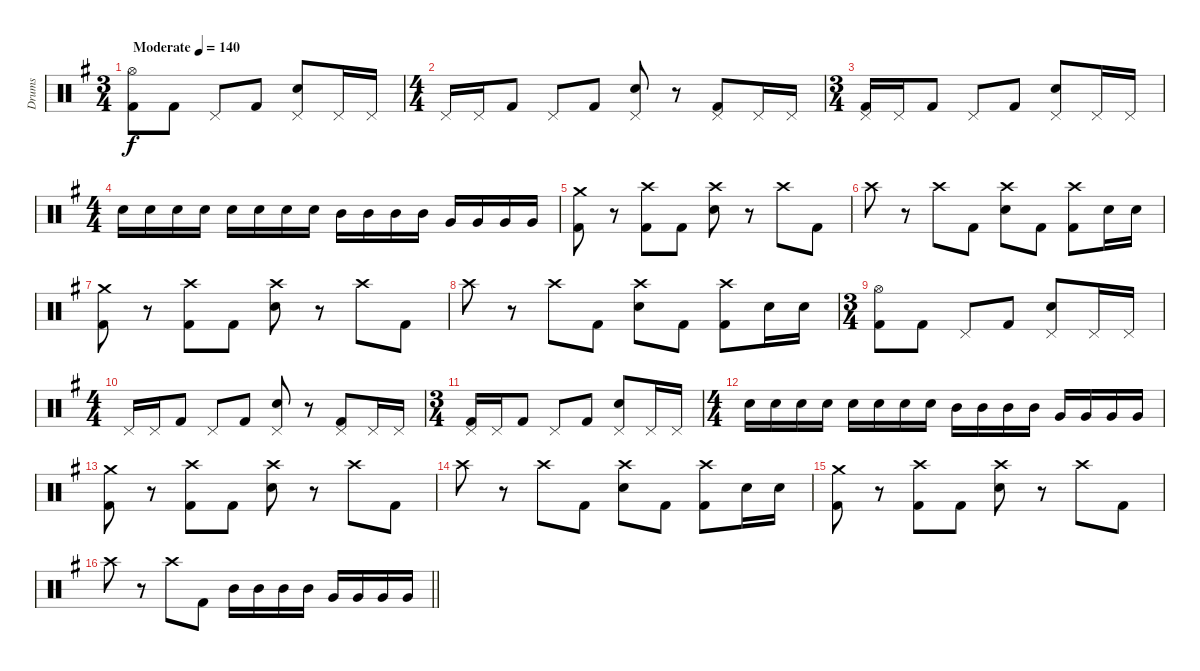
\track ("Drums" "Drums") {instrument percussion}
\staff {score}
\articulation defaults
\ts (3 4)
\tempo (140 "Moderate")
\clef neutral
\ks eminor
("Hi-Hat (open)" "Kick (hit) 2").8{dy f} "Kick (hit) 2".8 "Pedal Hi-Hat (hit)".8 "Kick (hit) 2".8 ("Pedal Hi-Hat (hit)" "Snare (hit) 2").8 "Pedal Hi-Hat (hit)".16 "Pedal Hi-Hat (hit)".16 |
\ts (4 4)
"Pedal Hi-Hat (hit)".16 "Pedal Hi-Hat (hit)".16 "Kick (hit) 2".8 "Pedal Hi-Hat (hit)".8 "Kick (hit) 2".8 ("Pedal Hi-Hat (hit)" "Snare (hit) 2").8 r.8 ("Pedal Hi-Hat (hit)" "Kick (hit) 2").8 "Pedal Hi-Hat (hit)".16 "Pedal Hi-Hat (hit)".16 |
\ts (3 4)
("Pedal Hi-Hat (hit)" "Kick (hit) 2").16 "Pedal Hi-Hat (hit)".16 "Kick (hit) 2".8 "Pedal Hi-Hat (hit)".8 "Kick (hit) 2".8 ("Pedal Hi-Hat (hit)" "Snare (hit) 2").8 "Pedal Hi-Hat (hit)".16 "Pedal Hi-Hat (hit)".16 |
\ts (4 4)
"Snare (hit) 2".16 "Snare (hit) 2".16 "Snare (hit) 2".16 "Snare (hit) 2".16 "Snare (hit) 2".16 "Snare (hit) 2".16 "Snare (hit) 2".16 "Snare (hit) 2".16 "Mid Tom (hit)".16 "Mid Tom (hit)".16 "Mid Tom (hit)".16 "Mid Tom (hit)".16 "Very Low Tom (hit)".16 "Very Low Tom (hit)".16 "Very Low Tom (hit)".16 "Very Low Tom (hit)".16 |
("Crash medium (hit)" "Kick (hit) 2").8 r.8 ("Crash high (hit)" "Kick (hit) 2").8 "Kick (hit) 2".8 ("Crash high (hit)" "Snare (hit) 2").8 r.8 "Crash high (hit)".8 "Kick (hit) 2".8 |
"Crash high (hit)".8 r.8 "Crash high (hit)".8 "Kick (hit) 2".8 ("Crash high (hit)" "Snare (hit) 2").8 "Kick (hit) 2".8 ("Crash high (hit)" "Kick (hit) 2").8 "Snare (hit) 2".16 "Snare (hit) 2".16 |
("Crash medium (hit)" "Kick (hit) 2").8 r.8 ("Crash high (hit)" "Kick (hit) 2").8 "Kick (hit) 2".8 ("Crash high (hit)" "Snare (hit) 2").8 r.8 "Crash high (hit)".8 "Kick (hit) 2".8 |
"Crash high (hit)".8 r.8 "Crash high (hit)".8 "Kick (hit) 2".8 ("Crash high (hit)" "Snare (hit) 2").8 "Kick (hit) 2".8 ("Crash high (hit)" "Kick (hit) 2").8 "Snare (hit) 2".16 "Snare (hit) 2".16 |
\ts (3 4)
("Hi-Hat (open)" "Kick (hit) 2").8 "Kick (hit) 2".8 "Pedal Hi-Hat (hit)".8 "Kick (hit) 2".8 ("Pedal Hi-Hat (hit)" "Snare (hit) 2").8 "Pedal Hi-Hat (hit)".16 "Pedal Hi-Hat (hit)".16 |
\ts (4 4)
"Pedal Hi-Hat (hit)".16 "Pedal Hi-Hat (hit)".16 "Kick (hit) 2".8 "Pedal Hi-Hat (hit)".8 "Kick (hit) 2".8 ("Pedal Hi-Hat (hit)" "Snare (hit) 2").8 r.8 ("Pedal Hi-Hat (hit)" "Kick (hit) 2").8 "Pedal Hi-Hat (hit)".16 "Pedal Hi-Hat (hit)".16 |
\ts (3 4)
("Pedal Hi-Hat (hit)" "Kick (hit) 2").16 "Pedal Hi-Hat (hit)".16 "Kick (hit) 2".8 "Pedal Hi-Hat (hit)".8 "Kick (hit) 2".8 ("Pedal Hi-Hat (hit)" "Snare (hit) 2").8 "Pedal Hi-Hat (hit)".16 "Pedal Hi-Hat (hit)".16 |
\ts (4 4)
"Snare (hit) 2".16 "Snare (hit) 2".16 "Snare (hit) 2".16 "Snare (hit) 2".16 "Snare (hit) 2".16 "Snare (hit) 2".16 "Snare (hit) 2".16 "Snare (hit) 2".16 "Mid Tom (hit)".16 "Mid Tom (hit)".16 "Mid Tom (hit)".16 "Mid Tom (hit)".16 "Very Low Tom (hit)".16 "Very Low Tom (hit)".16 "Very Low Tom (hit)".16 "Very Low Tom (hit)".16 |
("Crash medium (hit)" "Kick (hit) 2").8 r.8 ("Crash high (hit)" "Kick (hit) 2").8 "Kick (hit) 2".8 ("Crash high (hit)" "Snare (hit) 2").8 r.8 "Crash high (hit)".8 "Kick (hit) 2".8 |
"Crash high (hit)".8 r.8 "Crash high (hit)".8 "Kick (hit) 2".8 ("Crash high (hit)" "Snare (hit) 2").8 "Kick (hit) 2".8 ("Crash high (hit)" "Kick (hit) 2").8 "Snare (hit) 2".16 "Snare (hit) 2".16 |
("Crash medium (hit)" "Kick (hit) 2").8 r.8 ("Crash high (hit)" "Kick (hit) 2").8 "Kick (hit) 2".8 ("Crash high (hit)" "Snare (hit) 2").8 r.8 "Crash high (hit)".8 "Kick (hit) 2".8 |
\barLineRight lightlight "Crash high (hit)".8
r.8 "Crash high (hit)".8 "Kick (hit) 2".8 "Mid Tom (hit)".16 "Mid Tom (hit)".16 "Mid Tom (hit)".16 "Mid Tom (hit)".16 "Very Low Tom (hit)".16 "Very Low Tom (hit)".16 "Very Low Tom (hit)".16 "Very Low Tom (hit)".16
